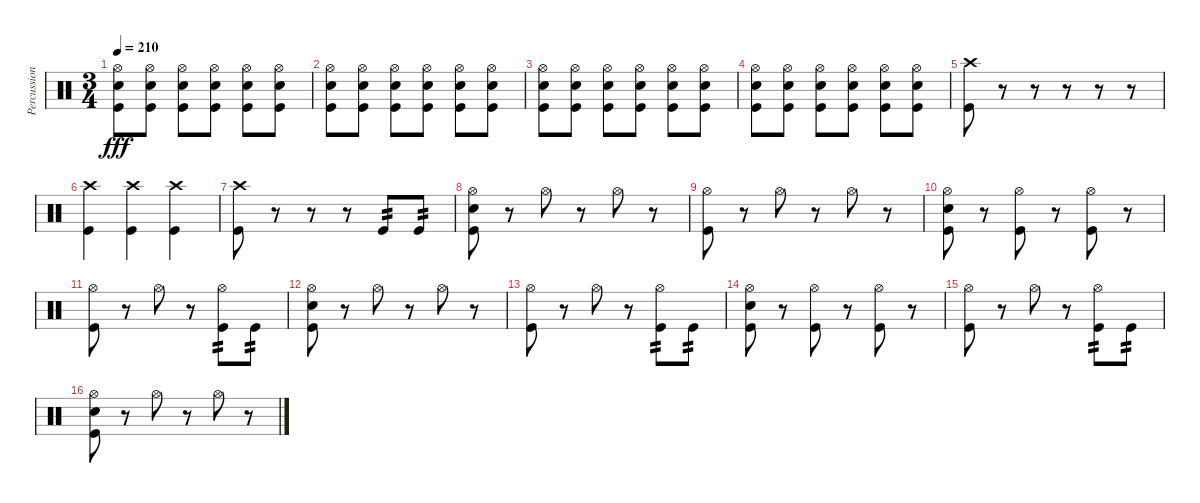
\track ("Percussion" "Percussion") {instrument percussion}
\staff {score}
\articulation defaults
\ts (3 4)
\tempo 210
\clef neutral
\ks c
("Hi-Hat (open)" "Electric Snare (hit)" "Kick (hit)").8{dy fff} ("Hi-Hat (open)" "Electric Snare (hit)" "Kick (hit)").8 ("Hi-Hat (open)" "Electric Snare (hit)" "Kick (hit)").8 ("Hi-Hat (open)" "Electric Snare (hit)" "Kick (hit)").8 ("Hi-Hat (open)" "Electric Snare (hit)" "Kick (hit)").8 ("Hi-Hat (open)" "Electric Snare (hit)" "Kick (hit)").8 |
("Hi-Hat (open)" "Electric Snare (hit)" "Kick (hit)").8 ("Hi-Hat (open)" "Electric Snare (hit)" "Kick (hit)").8 ("Hi-Hat (open)" "Electric Snare (hit)" "Kick (hit)").8 ("Hi-Hat (open)" "Electric Snare (hit)" "Kick (hit)").8 ("Hi-Hat (open)" "Electric Snare (hit)" "Kick (hit)").8 ("Hi-Hat (open)" "Electric Snare (hit)" "Kick (hit)").8 |
("Hi-Hat (open)" "Electric Snare (hit)" "Kick (hit)").8 ("Hi-Hat (open)" "Electric Snare (hit)" "Kick (hit)").8 ("Hi-Hat (open)" "Electric Snare (hit)" "Kick (hit)").8 ("Hi-Hat (open)" "Electric Snare (hit)" "Kick (hit)").8 ("Hi-Hat (open)" "Electric Snare (hit)" "Kick (hit)").8 ("Hi-Hat (open)" "Electric Snare (hit)" "Kick (hit)").8 |
("Hi-Hat (open)" "Electric Snare (hit)" "Kick (hit)").8 ("Hi-Hat (open)" "Electric Snare (hit)" "Kick (hit)").8 ("Hi-Hat (open)" "Electric Snare (hit)" "Kick (hit)").8 ("Hi-Hat (open)" "Electric Snare (hit)" "Kick (hit)").8 ("Hi-Hat (open)" "Electric Snare (hit)" "Kick (hit)").8 ("Hi-Hat (open)" "Electric Snare (hit)" "Kick (hit)").8 |
("Crash high (hit)" "Kick (hit)").8 r.8 r.8 r.8 r.8 r.8 |
("Crash high (hit)" "Kick (hit)").4 ("Crash high (hit)" "Kick (hit)").4 ("Crash high (hit)" "Kick (hit)").4 |
("Crash high (hit)" "Kick (hit)").8 r.8 r.8 r.8 "Kick (hit)".8{tp 2} "Kick (hit)".8{tp 2} |
("Hi-Hat (open)" "Electric Snare (hit)" "Kick (hit)").8 r.8 "Hi-Hat (open)".8 r.8 "Hi-Hat (open)".8 r.8 |
("Hi-Hat (open)" "Kick (hit)").8 r.8 "Hi-Hat (open)".8 r.8 "Hi-Hat (open)".8 r.8 |
("Hi-Hat (open)" "Electric Snare (hit)" "Kick (hit)").8 r.8 ("Hi-Hat (open)" "Kick (hit)").8 r.8 ("Hi-Hat (open)" "Kick (hit)").8 r.8 |
("Hi-Hat (open)" "Kick (hit)").8 r.8 "Hi-Hat (open)".8 r.8 ("Hi-Hat (open)" "Kick (hit)").8{tp 2} "Kick (hit)".8{tp 2} |
("Hi-Hat (open)" "Electric Snare (hit)" "Kick (hit)").8 r.8 "Hi-Hat (open)".8 r.8 "Hi-Hat (open)".8 r.8 |
("Hi-Hat (open)" "Kick (hit)").8 r.8 "Hi-Hat (open)".8 r.8 ("Hi-Hat (open)" "Kick (hit)").8{tp 2} "Kick (hit)".8{tp 2} |
("Hi-Hat (open)" "Electric Snare (hit)" "Kick (hit)").8 r.8 ("Hi-Hat (open)" "Kick (hit)").8 r.8 ("Hi-Hat (open)" "Kick (hit)").8 r.8 |
("Hi-Hat (open)" "Kick (hit)").8 r.8 "Hi-Hat (open)".8 r.8 ("Hi-Hat (open)" "Kick (hit)").8{tp 2} "Kick (hit)".8{tp 2} |
("Hi-Hat (open)" "Electric Snare (hit)" "Kick (hit)").8 r.8 "Hi-Hat (open)".8 r.8 "Hi-Hat (open)".8 r.8
